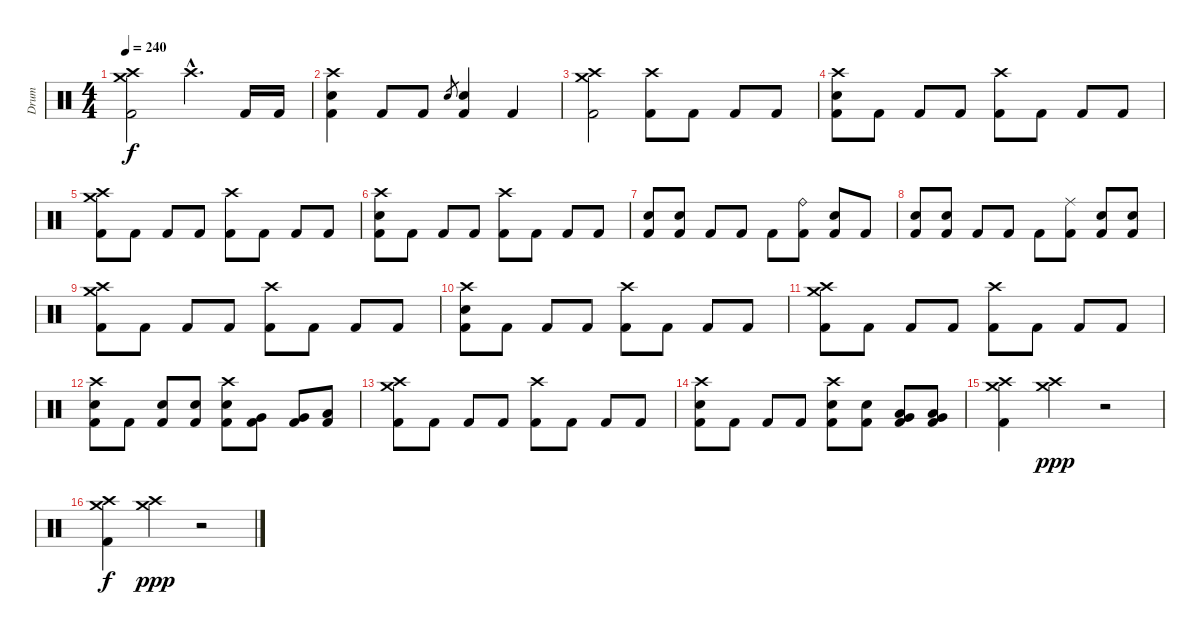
\track ("Drum" "Drum") {instrument percussion}
\staff {score}
\articulation defaults
\ts (4 4)
\tempo 240
\clef neutral
\ks c
("Crash medium (hit)" "Crash high (hit)" "Kick (hit) 2").2{dy f} "Crash high (hit)"{hac}.4{d} "Kick (hit) 2".16 "Kick (hit) 2".16 |
("Crash high (hit)" "Electric Snare (hit)" "Kick (hit) 2").4 "Kick (hit) 2".8 "Kick (hit) 2".8 "Electric Snare (hit)".8{gr} ("Electric Snare (hit)" "Kick (hit) 2").4 "Kick (hit) 2".4 |
("Crash medium (hit)" "Crash high (hit)" "Kick (hit) 2").2 ("Crash high (hit)" "Kick (hit) 2").8 "Kick (hit) 2".8 "Kick (hit) 2".8 "Kick (hit) 2".8 |
("Crash high (hit)" "Electric Snare (hit)" "Kick (hit) 2").8 "Kick (hit) 2".8 "Kick (hit) 2".8 "Kick (hit) 2".8 ("Crash high (hit)" "Kick (hit) 2").8 "Kick (hit) 2".8 "Kick (hit) 2".8 "Kick (hit) 2".8 |
("Crash medium (hit)" "Crash high (hit)" "Kick (hit) 2").8 "Kick (hit) 2".8 "Kick (hit) 2".8 "Kick (hit) 2".8 ("Crash high (hit)" "Kick (hit) 2").8 "Kick (hit) 2".8 "Kick (hit) 2".8 "Kick (hit) 2".8 |
("Crash high (hit)" "Electric Snare (hit)" "Kick (hit) 2").8 "Kick (hit) 2".8 "Kick (hit) 2".8 "Kick (hit) 2".8 ("Crash high (hit)" "Kick (hit) 2").8 "Kick (hit) 2".8 "Kick (hit) 2".8 "Kick (hit) 2".8 |
("Electric Snare (hit)" "Kick (hit) 2").8 ("Electric Snare (hit)" "Kick (hit) 2").8 "Kick (hit) 2".8 "Kick (hit) 2".8 "Kick (hit) 2".8 ("Ride (bell)" "Kick (hit) 2").8 ("Electric Snare (hit)" "Kick (hit) 2").8 "Kick (hit) 2".8 |
("Electric Snare (hit)" "Kick (hit) 2").8 ("Electric Snare (hit)" "Kick (hit) 2").8 "Kick (hit) 2".8 "Kick (hit) 2".8 "Kick (hit) 2".8 ("Ride (middle)" "Kick (hit) 2").8 ("Electric Snare (hit)" "Kick (hit) 2").8 ("Electric Snare (hit)" "Kick (hit) 2").8 |
("Crash medium (hit)" "Crash high (hit)" "Kick (hit) 2").8 "Kick (hit) 2".8 "Kick (hit) 2".8 "Kick (hit) 2".8 ("Crash high (hit)" "Kick (hit) 2").8 "Kick (hit) 2".8 "Kick (hit) 2".8 "Kick (hit) 2".8 |
("Crash high (hit)" "Electric Snare (hit)" "Kick (hit) 2").8 "Kick (hit) 2".8 "Kick (hit) 2".8 "Kick (hit) 2".8 ("Crash high (hit)" "Kick (hit) 2").8 "Kick (hit) 2".8 "Kick (hit) 2".8 "Kick (hit) 2".8 |
("Crash medium (hit)" "Crash high (hit)" "Kick (hit) 2").8 "Kick (hit) 2".8 "Kick (hit) 2".8 "Kick (hit) 2".8 ("Crash high (hit)" "Kick (hit) 2").8 "Kick (hit) 2".8 "Kick (hit) 2".8 "Kick (hit) 2".8 |
("Crash high (hit)" "Electric Snare (hit)" "Kick (hit) 2").8 "Kick (hit) 2".8 ("Electric Snare (hit)" "Kick (hit) 2").8 ("Electric Snare (hit)" "Kick (hit) 2").8 ("Crash high (hit)" "Electric Snare (hit)" "Kick (hit) 2").8 ("Very Low Tom (hit)" "Kick (hit) 2").8 ("Very Low Tom (hit)" "Kick (hit) 2").8 ("Low Tom (hit)" "Kick (hit) 2").8 |
("Crash medium (hit)" "Crash high (hit)" "Kick (hit) 2").8 "Kick (hit) 2".8 "Kick (hit) 2".8 "Kick (hit) 2".8 ("Crash high (hit)" "Kick (hit) 2").8 "Kick (hit) 2".8 "Kick (hit) 2".8 "Kick (hit) 2".8 |
("Crash high (hit)" "Electric Snare (hit)" "Kick (hit) 2").8 "Kick (hit) 2".8 "Kick (hit) 2".8 "Kick (hit) 2".8 ("Crash high (hit)" "Electric Snare (hit)" "Kick (hit) 2").8 ("Electric Snare (hit)" "Kick (hit) 2").8 ("Very Low Tom (hit)" "Low Tom (hit)" "Kick (hit) 2").8 ("Very Low Tom (hit)" "Low Tom (hit)" "Kick (hit) 2").8 |
("Crash medium (hit)" "Crash high (hit)" "Kick (hit) 2").4 ("Crash medium (hit)" "Crash high (hit)").4{dy ppp} r.2 |
("Crash medium (hit)" "Crash high (hit)" "Kick (hit) 2").4{dy f} ("Crash medium (hit)" "Crash high (hit)").4{dy ppp} r.2
